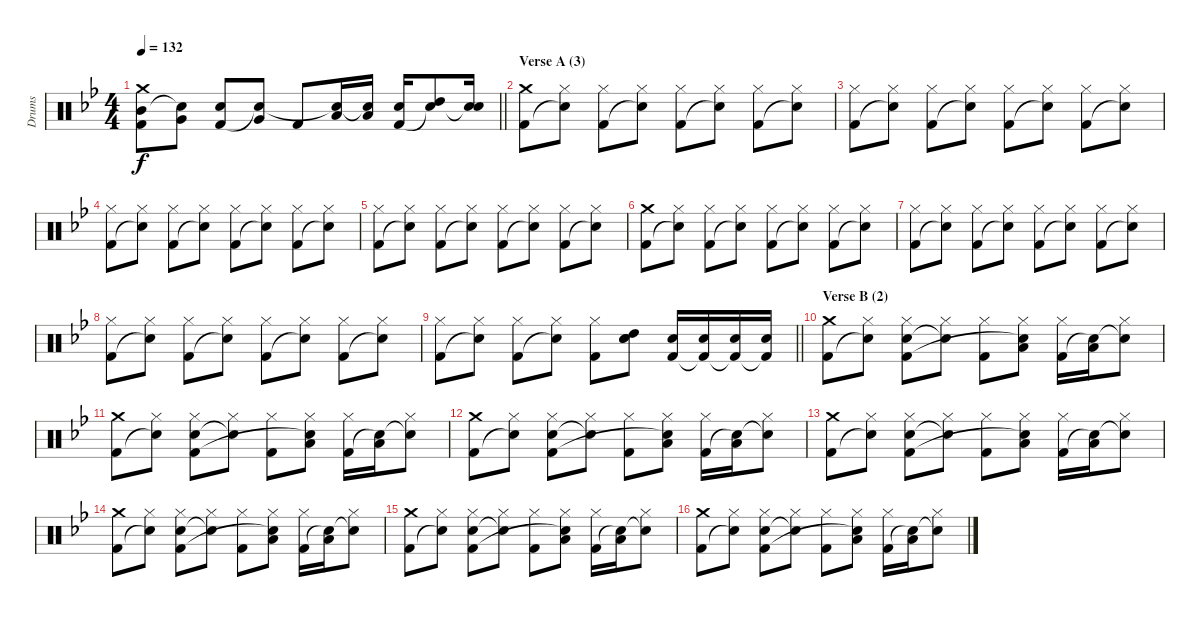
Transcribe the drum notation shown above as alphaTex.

\track ("Drums" "Drums") {instrument percussion}
\staff {score}
\articulation defaults
\ts (4 4)
\tempo 132
\clef neutral
\barLineRight lightlight
\ks bb
("Crash medium (hit)" "Mid Tom (hit)" "Kick (hit) 2").8{dy f} ("Very Low Tom (hit)" "Snare (hit)"{t}).8 ("Electric Snare (hit)" "Kick (hit) 2").8 ("Very Low Tom (hit)" "Snare (hit)"{t}).8 "Kick (hit) 2".8 ("Low Floor Tom (hit)" "Snare (hit)"{t}).16 ("Low Floor Tom (hit)" "Snare (hit)"{t}).16 ("Electric Snare (hit)" "Kick (hit) 2").16 ("High Tom (hit)" "Snare (hit)"{t}).8 ("Electric Snare (hit)" "Snare (hit)"{t}).16 |
\section ("" "Verse A (3)")
("Crash medium (hit)" "Kick (hit) 2").8 ("Hi-Hat (closed)" "Snare (hit)"{t}).8 ("Hi-Hat (closed)" "Kick (hit) 2").8 ("Hi-Hat (closed)" "Snare (hit)"{t}).8 ("Hi-Hat (closed)" "Kick (hit) 2").8 ("Hi-Hat (closed)" "Snare (hit)"{t}).8 ("Hi-Hat (closed)" "Kick (hit) 2").8 ("Hi-Hat (closed)" "Snare (hit)"{t}).8 |
("Hi-Hat (closed)" "Kick (hit) 2").8 ("Hi-Hat (closed)" "Snare (hit)"{t}).8 ("Hi-Hat (closed)" "Kick (hit) 2").8 ("Hi-Hat (closed)" "Snare (hit)"{t}).8 ("Hi-Hat (closed)" "Kick (hit) 2").8 ("Hi-Hat (closed)" "Snare (hit)"{t}).8 ("Hi-Hat (closed)" "Kick (hit) 2").8 ("Hi-Hat (closed)" "Snare (hit)"{t}).8 |
("Hi-Hat (closed)" "Kick (hit) 2").8 ("Hi-Hat (closed)" "Snare (hit)"{t}).8 ("Hi-Hat (closed)" "Kick (hit) 2").8 ("Hi-Hat (closed)" "Snare (hit)"{t}).8 ("Hi-Hat (closed)" "Kick (hit) 2").8 ("Hi-Hat (closed)" "Snare (hit)"{t}).8 ("Hi-Hat (closed)" "Kick (hit) 2").8 ("Hi-Hat (closed)" "Snare (hit)"{t}).8 |
("Hi-Hat (closed)" "Kick (hit) 2").8 ("Hi-Hat (closed)" "Snare (hit)"{t}).8 ("Hi-Hat (closed)" "Kick (hit) 2").8 ("Hi-Hat (closed)" "Snare (hit)"{t}).8 ("Hi-Hat (closed)" "Kick (hit) 2").8 ("Hi-Hat (closed)" "Snare (hit)"{t}).8 ("Hi-Hat (closed)" "Kick (hit) 2").8 ("Hi-Hat (closed)" "Snare (hit)"{t}).8 |
("Crash medium (hit)" "Kick (hit) 2").8 ("Hi-Hat (closed)" "Snare (hit)"{t}).8 ("Hi-Hat (closed)" "Kick (hit) 2").8 ("Hi-Hat (closed)" "Snare (hit)"{t}).8 ("Hi-Hat (closed)" "Kick (hit) 2").8 ("Hi-Hat (closed)" "Snare (hit)"{t}).8 ("Hi-Hat (closed)" "Kick (hit) 2").8 ("Hi-Hat (closed)" "Snare (hit)"{t}).8 |
("Hi-Hat (closed)" "Kick (hit) 2").8 ("Hi-Hat (closed)" "Snare (hit)"{t}).8 ("Hi-Hat (closed)" "Kick (hit) 2").8 ("Hi-Hat (closed)" "Snare (hit)"{t}).8 ("Hi-Hat (closed)" "Kick (hit) 2").8 ("Hi-Hat (closed)" "Snare (hit)"{t}).8 ("Hi-Hat (closed)" "Kick (hit) 2").8 ("Hi-Hat (closed)" "Snare (hit)"{t}).8 |
("Hi-Hat (closed)" "Kick (hit) 2").8 ("Hi-Hat (closed)" "Snare (hit)"{t}).8 ("Hi-Hat (closed)" "Kick (hit) 2").8 ("Hi-Hat (closed)" "Snare (hit)"{t}).8 ("Hi-Hat (closed)" "Kick (hit) 2").8 ("Hi-Hat (closed)" "Snare (hit)"{t}).8 ("Hi-Hat (closed)" "Kick (hit) 2").8 ("Hi-Hat (closed)" "Snare (hit)"{t}).8 |
\barLineRight lightlight
("Hi-Hat (closed)" "Kick (hit) 2").8 ("Hi-Hat (closed)" "Snare (hit)"{t}).8 ("Hi-Hat (closed)" "Kick (hit) 2").8 ("Hi-Hat (closed)" "Snare (hit)"{t}).8 ("Hi-Hat (closed)" "Kick (hit) 2").8 ("High Tom (hit)" "Electric Snare (hit)" "Snare (hit)").8 ("Electric Snare (hit)" "Kick (hit) 2").16 ("Electric Snare (hit)" "Kick (hit) 2"{t}).16 ("Electric Snare (hit)" "Kick (hit) 2"{t}).16 ("Electric Snare (hit)" "Kick (hit) 2"{t}).16 |
\section ("" "Verse B (2)")
("Crash medium (hit)" "Kick (hit) 2").8 ("Hi-Hat (closed)" "Snare (hit)"{t}).8 ("Hi-Hat (closed)" "Electric Snare (hit)" "Kick (hit) 2").8 ("Hi-Hat (closed)" "Snare (hit)"{t}).8 ("Hi-Hat (closed)" "Kick (hit) 2").8 ("Hi-Hat (closed)" "Low Floor Tom (hit)" "Snare (hit)"{t}).8 ("Hi-Hat (closed)" "Kick (hit) 2").16 ("Low Floor Tom (hit)" "Snare (hit)"{t}).16 ("Hi-Hat (closed)" "Snare (hit)"{t}).8 |
("Crash medium (hit)" "Kick (hit) 2").8 ("Hi-Hat (closed)" "Snare (hit)"{t}).8 ("Hi-Hat (closed)" "Electric Snare (hit)" "Kick (hit) 2").8 ("Hi-Hat (closed)" "Snare (hit)"{t}).8 ("Hi-Hat (closed)" "Kick (hit) 2").8 ("Hi-Hat (closed)" "Low Floor Tom (hit)" "Snare (hit)"{t}).8 ("Hi-Hat (closed)" "Kick (hit) 2").16 ("Low Floor Tom (hit)" "Snare (hit)"{t}).16 ("Hi-Hat (closed)" "Snare (hit)"{t}).8 |
("Crash medium (hit)" "Kick (hit) 2").8 ("Hi-Hat (closed)" "Snare (hit)"{t}).8 ("Hi-Hat (closed)" "Electric Snare (hit)" "Kick (hit) 2").8 ("Hi-Hat (closed)" "Snare (hit)"{t}).8 ("Hi-Hat (closed)" "Kick (hit) 2").8 ("Hi-Hat (closed)" "Low Floor Tom (hit)" "Snare (hit)"{t}).8 ("Hi-Hat (closed)" "Kick (hit) 2").16 ("Low Floor Tom (hit)" "Snare (hit)"{t}).16 ("Hi-Hat (closed)" "Snare (hit)"{t}).8 |
("Crash medium (hit)" "Kick (hit) 2").8 ("Hi-Hat (closed)" "Snare (hit)"{t}).8 ("Hi-Hat (closed)" "Electric Snare (hit)" "Kick (hit) 2").8 ("Hi-Hat (closed)" "Snare (hit)"{t}).8 ("Hi-Hat (closed)" "Kick (hit) 2").8 ("Hi-Hat (closed)" "Low Floor Tom (hit)" "Snare (hit)"{t}).8 ("Hi-Hat (closed)" "Kick (hit) 2").16 ("Low Floor Tom (hit)" "Snare (hit)"{t}).16 ("Hi-Hat (closed)" "Snare (hit)"{t}).8 |
("Crash medium (hit)" "Kick (hit) 2").8 ("Hi-Hat (closed)" "Snare (hit)"{t}).8 ("Hi-Hat (closed)" "Electric Snare (hit)" "Kick (hit) 2").8 ("Hi-Hat (closed)" "Snare (hit)"{t}).8 ("Hi-Hat (closed)" "Kick (hit) 2").8 ("Hi-Hat (closed)" "Low Floor Tom (hit)" "Snare (hit)"{t}).8 ("Hi-Hat (closed)" "Kick (hit) 2").16 ("Low Floor Tom (hit)" "Snare (hit)"{t}).16 ("Hi-Hat (closed)" "Snare (hit)"{t}).8 |
("Crash medium (hit)" "Kick (hit) 2").8 ("Hi-Hat (closed)" "Snare (hit)"{t}).8 ("Hi-Hat (closed)" "Electric Snare (hit)" "Kick (hit) 2").8 ("Hi-Hat (closed)" "Snare (hit)"{t}).8 ("Hi-Hat (closed)" "Kick (hit) 2").8 ("Hi-Hat (closed)" "Low Floor Tom (hit)" "Snare (hit)"{t}).8 ("Hi-Hat (closed)" "Kick (hit) 2").16 ("Low Floor Tom (hit)" "Snare (hit)"{t}).16 ("Hi-Hat (closed)" "Snare (hit)"{t}).8 |
("Crash medium (hit)" "Kick (hit) 2").8 ("Hi-Hat (closed)" "Snare (hit)"{t}).8 ("Hi-Hat (closed)" "Electric Snare (hit)" "Kick (hit) 2").8 ("Hi-Hat (closed)" "Snare (hit)"{t}).8 ("Hi-Hat (closed)" "Kick (hit) 2").8 ("Hi-Hat (closed)" "Low Floor Tom (hit)" "Snare (hit)"{t}).8 ("Hi-Hat (closed)" "Kick (hit) 2").16 ("Low Floor Tom (hit)" "Snare (hit)"{t}).16 ("Hi-Hat (closed)" "Snare (hit)"{t}).8
